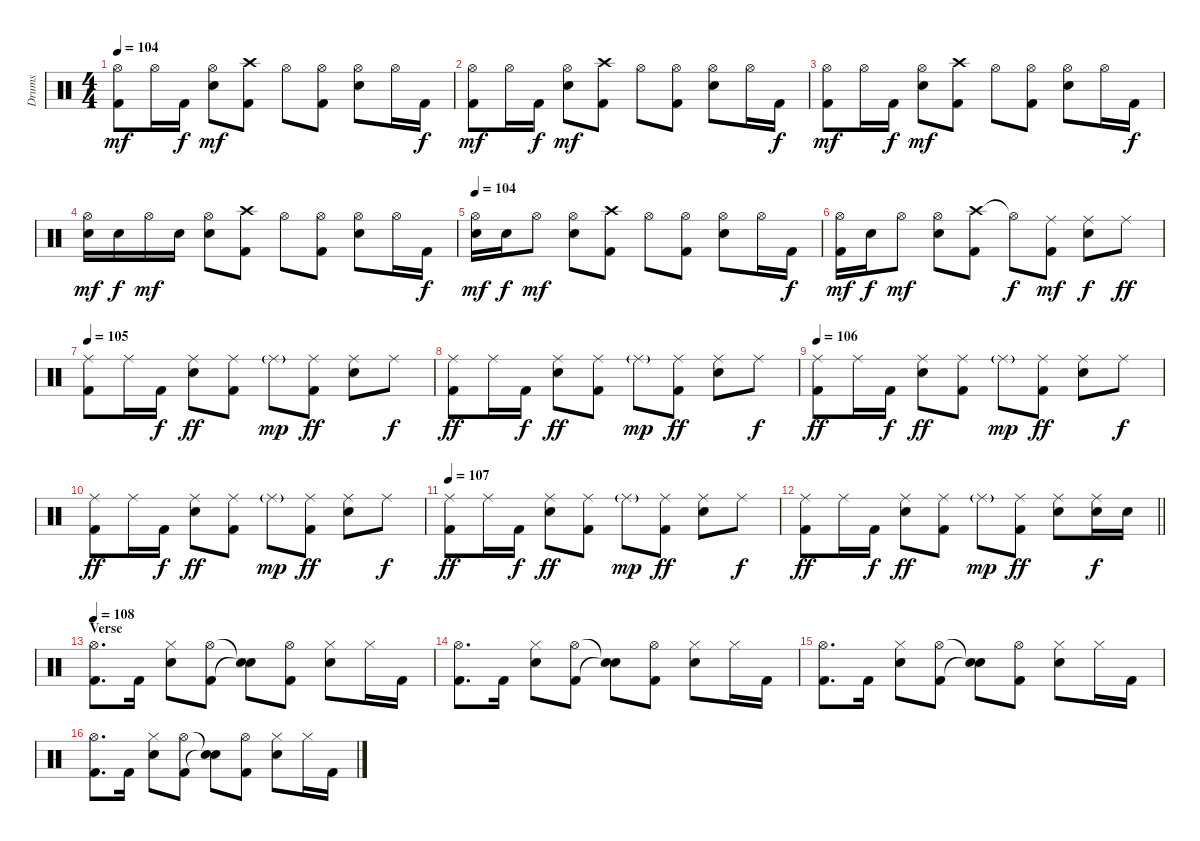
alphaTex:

\track ("Drums" "Drums") {instrument percussion}
\staff {score}
\articulation defaults
\ts (4 4)
\tempo 104
\clef neutral
\ks c
("Hi-Hat (open)" "Kick (hit) 2").8{dy mf} "Hi-Hat (open)".16 "Kick (hit) 2".16{dy f} ("Hi-Hat (open)" "Electric Snare (hit)").8{dy mf} ("Crash high (hit)" "Kick (hit) 2").8 "Hi-Hat (open)".8 ("Hi-Hat (open)" "Kick (hit) 2").8 ("Hi-Hat (open)" "Electric Snare (hit)").8 "Hi-Hat (open)".16 "Kick (hit) 2".16{dy f} |
("Hi-Hat (open)" "Kick (hit) 2").8{dy mf} "Hi-Hat (open)".16 "Kick (hit) 2".16{dy f} ("Hi-Hat (open)" "Electric Snare (hit)").8{dy mf} ("Crash high (hit)" "Kick (hit) 2").8 "Hi-Hat (open)".8 ("Hi-Hat (open)" "Kick (hit) 2").8 ("Hi-Hat (open)" "Electric Snare (hit)").8 "Hi-Hat (open)".16 "Kick (hit) 2".16{dy f} |
("Hi-Hat (open)" "Kick (hit) 2").8{dy mf} "Hi-Hat (open)".16 "Kick (hit) 2".16{dy f} ("Hi-Hat (open)" "Electric Snare (hit)").8{dy mf} ("Crash high (hit)" "Kick (hit) 2").8 "Hi-Hat (open)".8 ("Hi-Hat (open)" "Kick (hit) 2").8 ("Hi-Hat (open)" "Electric Snare (hit)").8 "Hi-Hat (open)".16 "Kick (hit) 2".16{dy f} |
("Hi-Hat (open)" "Electric Snare (hit)").16{dy mf} "Electric Snare (hit)".16{dy f} "Hi-Hat (open)".16{dy mf} "Electric Snare (hit)".16 ("Hi-Hat (open)" "Electric Snare (hit)").8 ("Crash high (hit)" "Kick (hit) 2").8 "Hi-Hat (open)".8 ("Hi-Hat (open)" "Kick (hit) 2").8 ("Hi-Hat (open)" "Electric Snare (hit)").8 "Hi-Hat (open)".16 "Kick (hit) 2".16{dy f} |
\tempo 104
("Hi-Hat (open)" "Electric Snare (hit)").16{dy mf} "Electric Snare (hit)".16{dy f} "Hi-Hat (open)".8{dy mf} ("Hi-Hat (open)" "Electric Snare (hit)").8 ("Crash high (hit)" "Kick (hit) 2").8 "Hi-Hat (open)".8 ("Hi-Hat (open)" "Kick (hit) 2").8 ("Hi-Hat (open)" "Electric Snare (hit)").8 "Hi-Hat (open)".16 "Kick (hit) 2".16{dy f} |
("Hi-Hat (open)" "Kick (hit) 2").16{dy mf} "Electric Snare (hit)".16{dy f} "Hi-Hat (open)".8{dy mf} ("Hi-Hat (open)" "Electric Snare (hit)").8 ("Crash high (hit)" "Kick (hit) 2").8 "Hi-Hat (open)"{t}.8{dy f} ("Ride (middle)" "Kick (hit) 2").8{dy mf} ("Ride (middle)" "Electric Snare (hit)").8{dy f} "Ride (middle)".8{dy ff} |
\tempo 105
("Ride (middle)" "Kick (hit) 2").8 "Ride (middle)".16 "Kick (hit) 2".16{dy f} ("Ride (middle)" "Electric Snare (hit)").8{dy ff} ("Ride (middle)" "Kick (hit) 2").8 "Ride (middle)"{g}.8{dy mp} ("Ride (middle)" "Kick (hit) 2").8{dy ff} ("Ride (middle)" "Electric Snare (hit)").8 "Ride (middle)".8{dy f} |
("Ride (middle)" "Kick (hit) 2").8{dy ff} "Ride (middle)".16 "Kick (hit) 2".16{dy f} ("Ride (middle)" "Electric Snare (hit)").8{dy ff} ("Ride (middle)" "Kick (hit) 2").8 "Ride (middle)"{g}.8{dy mp} ("Ride (middle)" "Kick (hit) 2").8{dy ff} ("Ride (middle)" "Electric Snare (hit)").8 "Ride (middle)".8{dy f} |
\tempo 106
("Ride (middle)" "Kick (hit) 2").8{dy ff} "Ride (middle)".16 "Kick (hit) 2".16{dy f} ("Ride (middle)" "Electric Snare (hit)").8{dy ff} ("Ride (middle)" "Kick (hit) 2").8 "Ride (middle)"{g}.8{dy mp} ("Ride (middle)" "Kick (hit) 2").8{dy ff} ("Ride (middle)" "Electric Snare (hit)").8 "Ride (middle)".8{dy f} |
("Ride (middle)" "Kick (hit) 2").8{dy ff} "Ride (middle)".16 "Kick (hit) 2".16{dy f} ("Ride (middle)" "Electric Snare (hit)").8{dy ff} ("Ride (middle)" "Kick (hit) 2").8 "Ride (middle)"{g}.8{dy mp} ("Ride (middle)" "Kick (hit) 2").8{dy ff} ("Ride (middle)" "Electric Snare (hit)").8 "Ride (middle)".8{dy f} |
\tempo 107
("Ride (middle)" "Kick (hit) 2").8{dy ff} "Ride (middle)".16 "Kick (hit) 2".16{dy f} ("Ride (middle)" "Electric Snare (hit)").8{dy ff} ("Ride (middle)" "Kick (hit) 2").8 "Ride (middle)"{g}.8{dy mp} ("Ride (middle)" "Kick (hit) 2").8{dy ff} ("Ride (middle)" "Electric Snare (hit)").8 "Ride (middle)".8{dy f} |
\barLineRight lightlight
("Ride (middle)" "Kick (hit) 2").8{dy ff} "Ride (middle)".16 "Kick (hit) 2".16{dy f} ("Ride (middle)" "Electric Snare (hit)").8{dy ff} ("Ride (middle)" "Kick (hit) 2").8 "Ride (middle)"{g}.8{dy mp} ("Ride (middle)" "Kick (hit) 2").8{dy ff} ("Ride (middle)" "Electric Snare (hit)").8 ("Ride (middle)" "Electric Snare (hit)").16{dy f} "Electric Snare (hit)".16 |
\section ("" "Verse")
\tempo 108
("Hi-Hat (open)" "Kick (hit) 2").8{d} "Kick (hit) 2".16 ("Hi-Hat (closed)" "Electric Snare (hit)").8 ("Hi-Hat (open)" "Kick (hit) 2").8 ("Snare (hit)"{t} "Snare (hit)"{t}).8 ("Hi-Hat (open)" "Kick (hit) 2").8 ("Hi-Hat (closed)" "Electric Snare (hit)").8 "Hi-Hat (closed)".16 "Kick (hit) 2".16 |
("Hi-Hat (open)" "Kick (hit) 2").8{d} "Kick (hit) 2".16 ("Hi-Hat (closed)" "Electric Snare (hit)").8 ("Hi-Hat (open)" "Kick (hit) 2").8 ("Snare (hit)"{t} "Snare (hit)"{t}).8 ("Hi-Hat (open)" "Kick (hit) 2").8 ("Hi-Hat (closed)" "Electric Snare (hit)").8 "Hi-Hat (closed)".16 "Kick (hit) 2".16 |
("Hi-Hat (open)" "Kick (hit) 2").8{d} "Kick (hit) 2".16 ("Hi-Hat (closed)" "Electric Snare (hit)").8 ("Hi-Hat (open)" "Kick (hit) 2").8 ("Snare (hit)"{t} "Snare (hit)"{t}).8 ("Hi-Hat (open)" "Kick (hit) 2").8 ("Hi-Hat (closed)" "Electric Snare (hit)").8 "Hi-Hat (closed)".16 "Kick (hit) 2".16 |
("Hi-Hat (open)" "Kick (hit) 2").8{d} "Kick (hit) 2".16 ("Hi-Hat (closed)" "Electric Snare (hit)").8 ("Hi-Hat (open)" "Kick (hit) 2").8 ("Snare (hit)"{t} "Snare (hit)"{t}).8 ("Hi-Hat (open)" "Kick (hit) 2").8 ("Hi-Hat (closed)" "Electric Snare (hit)").8 "Hi-Hat (closed)".16 "Kick (hit) 2".16
